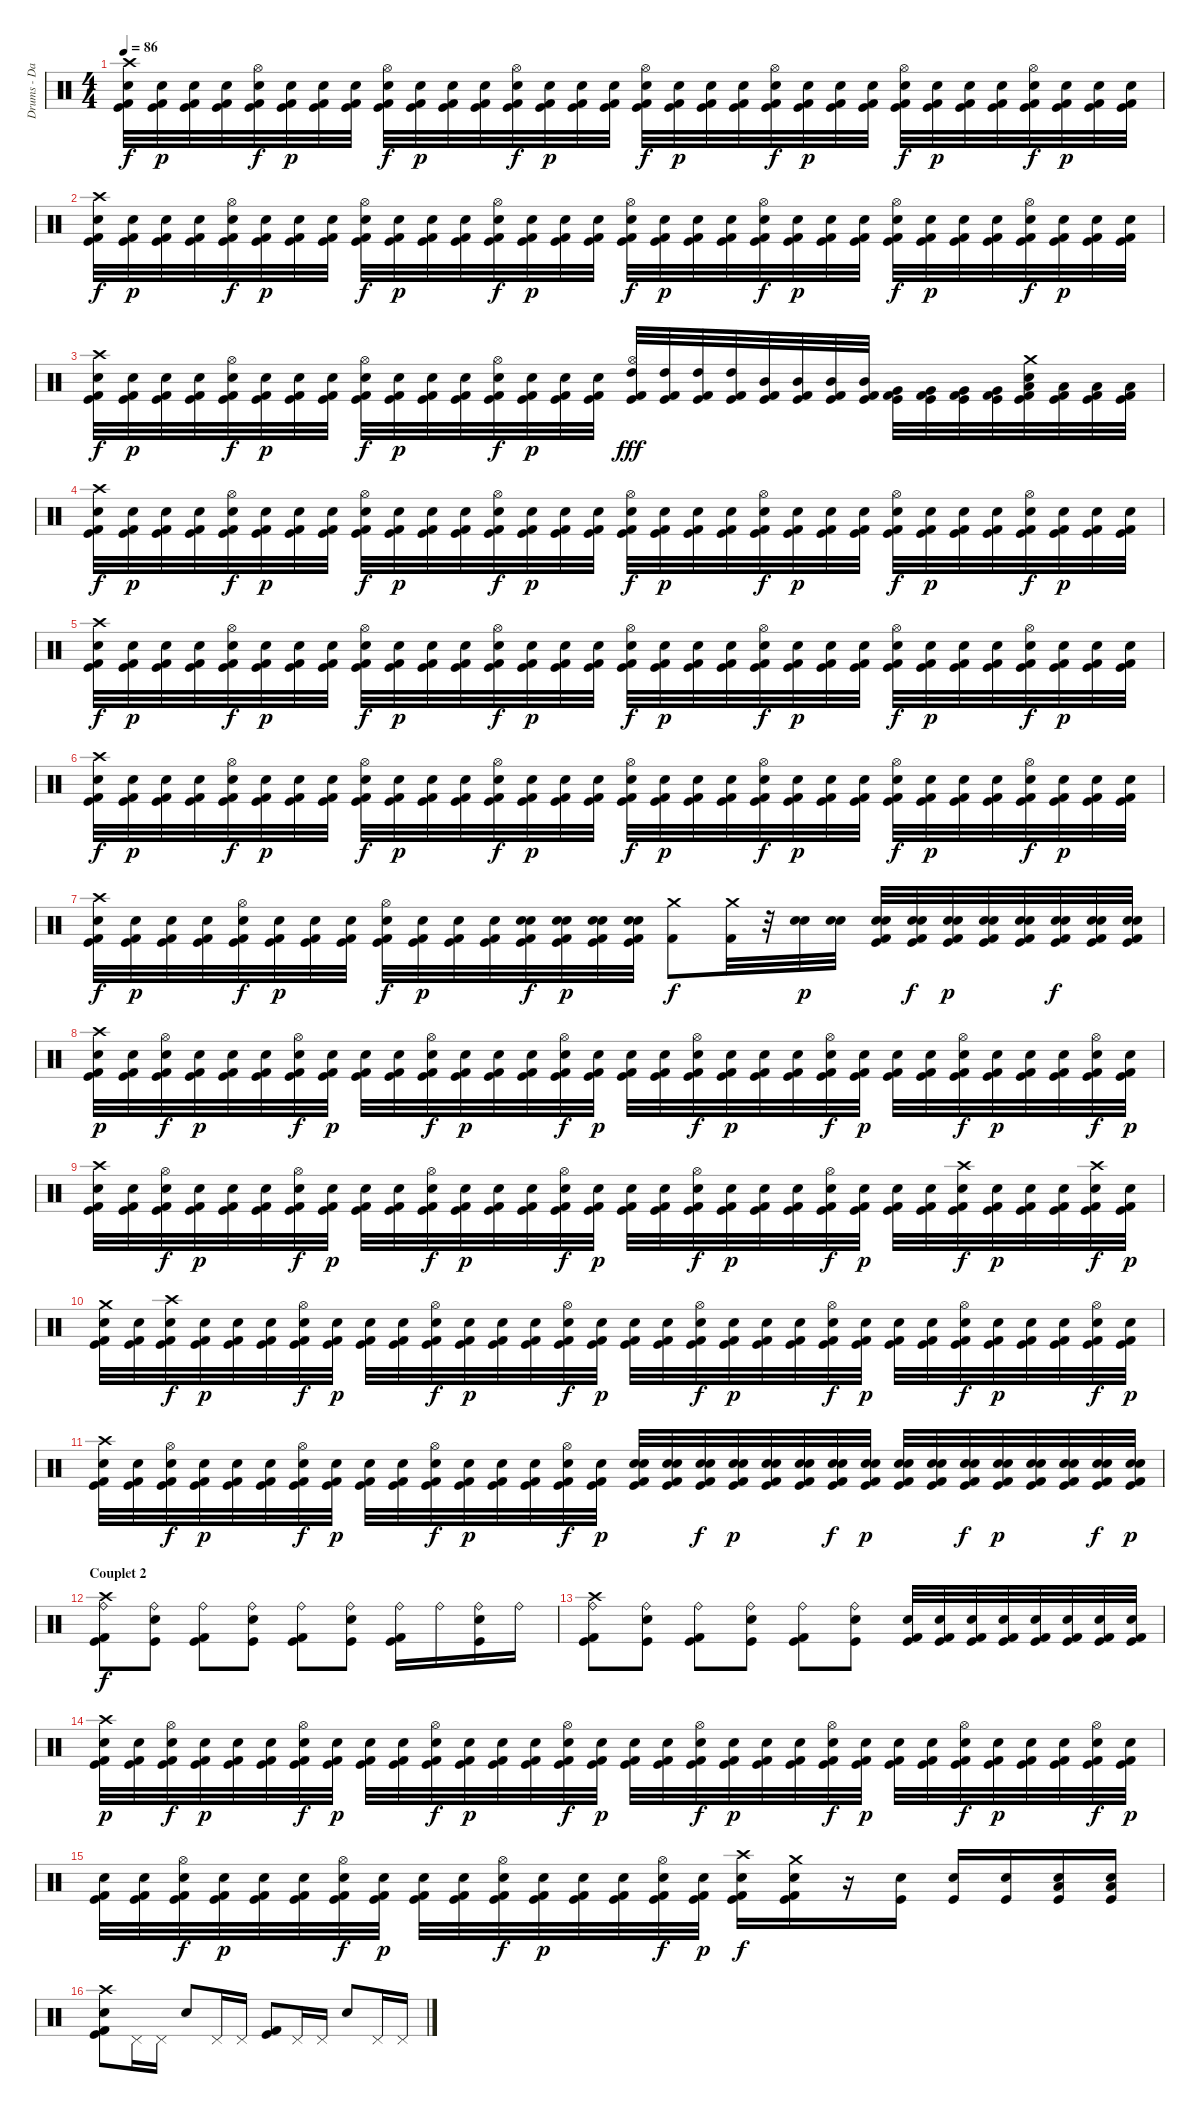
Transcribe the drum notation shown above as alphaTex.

\track ("Drums - Daniel Zimmermann" "Drums - Da") {instrument percussion}
\staff {score}
\articulation defaults
\ts (4 4)
\tempo 86
\clef neutral
\ks c
("Kick (hit)" "Kick (hit) 2" "Electric Snare (hit)" "Crash high (hit)").32{dy f} ("Kick (hit)" "Kick (hit) 2" "Electric Snare (hit)").32{dy p} ("Kick (hit)" "Kick (hit) 2" "Electric Snare (hit)").32 ("Kick (hit)" "Kick (hit) 2" "Electric Snare (hit)").32 ("Kick (hit)" "Kick (hit) 2" "Electric Snare (hit)" "Hi-Hat (open)").32{dy f} ("Kick (hit)" "Kick (hit) 2" "Electric Snare (hit)").32{dy p} ("Kick (hit)" "Kick (hit) 2" "Electric Snare (hit)").32 ("Kick (hit)" "Kick (hit) 2" "Electric Snare (hit)").32 ("Kick (hit)" "Kick (hit) 2" "Electric Snare (hit)" "Hi-Hat (open)").32{dy f} ("Kick (hit)" "Kick (hit) 2" "Electric Snare (hit)").32{dy p} ("Kick (hit)" "Kick (hit) 2" "Electric Snare (hit)").32 ("Kick (hit)" "Kick (hit) 2" "Electric Snare (hit)").32 ("Kick (hit)" "Kick (hit) 2" "Electric Snare (hit)" "Hi-Hat (open)").32{dy f} ("Kick (hit)" "Kick (hit) 2" "Electric Snare (hit)").32{dy p} ("Kick (hit)" "Kick (hit) 2" "Electric Snare (hit)").32 ("Kick (hit)" "Kick (hit) 2" "Electric Snare (hit)").32 ("Kick (hit)" "Kick (hit) 2" "Electric Snare (hit)" "Hi-Hat (open)").32{dy f} ("Kick (hit)" "Kick (hit) 2" "Electric Snare (hit)").32{dy p} ("Kick (hit)" "Kick (hit) 2" "Electric Snare (hit)").32 ("Kick (hit)" "Kick (hit) 2" "Electric Snare (hit)").32 ("Kick (hit)" "Kick (hit) 2" "Electric Snare (hit)" "Hi-Hat (open)").32{dy f} ("Kick (hit)" "Kick (hit) 2" "Electric Snare (hit)").32{dy p} ("Kick (hit)" "Kick (hit) 2" "Electric Snare (hit)").32 ("Kick (hit)" "Kick (hit) 2" "Electric Snare (hit)").32 ("Kick (hit)" "Kick (hit) 2" "Electric Snare (hit)" "Hi-Hat (open)").32{dy f} ("Kick (hit)" "Kick (hit) 2" "Electric Snare (hit)").32{dy p} ("Kick (hit)" "Kick (hit) 2" "Electric Snare (hit)").32 ("Kick (hit)" "Kick (hit) 2" "Electric Snare (hit)").32 ("Kick (hit)" "Kick (hit) 2" "Electric Snare (hit)" "Hi-Hat (open)").32{dy f} ("Kick (hit)" "Kick (hit) 2" "Electric Snare (hit)").32{dy p} ("Kick (hit)" "Kick (hit) 2" "Electric Snare (hit)").32 ("Kick (hit)" "Kick (hit) 2" "Electric Snare (hit)").32 |
("Kick (hit)" "Kick (hit) 2" "Electric Snare (hit)" "Crash high (hit)").32{dy f} ("Kick (hit)" "Kick (hit) 2" "Electric Snare (hit)").32{dy p} ("Kick (hit)" "Kick (hit) 2" "Electric Snare (hit)").32 ("Kick (hit)" "Kick (hit) 2" "Electric Snare (hit)").32 ("Kick (hit)" "Kick (hit) 2" "Electric Snare (hit)" "Hi-Hat (open)").32{dy f} ("Kick (hit)" "Kick (hit) 2" "Electric Snare (hit)").32{dy p} ("Kick (hit)" "Kick (hit) 2" "Electric Snare (hit)").32 ("Kick (hit)" "Kick (hit) 2" "Electric Snare (hit)").32 ("Kick (hit)" "Kick (hit) 2" "Electric Snare (hit)" "Hi-Hat (open)").32{dy f} ("Kick (hit)" "Kick (hit) 2" "Electric Snare (hit)").32{dy p} ("Kick (hit)" "Kick (hit) 2" "Electric Snare (hit)").32 ("Kick (hit)" "Kick (hit) 2" "Electric Snare (hit)").32 ("Kick (hit)" "Kick (hit) 2" "Electric Snare (hit)" "Hi-Hat (open)").32{dy f} ("Kick (hit)" "Kick (hit) 2" "Electric Snare (hit)").32{dy p} ("Kick (hit)" "Kick (hit) 2" "Electric Snare (hit)").32 ("Kick (hit)" "Kick (hit) 2" "Electric Snare (hit)").32 ("Kick (hit)" "Kick (hit) 2" "Electric Snare (hit)" "Hi-Hat (open)").32{dy f} ("Kick (hit)" "Kick (hit) 2" "Electric Snare (hit)").32{dy p} ("Kick (hit)" "Kick (hit) 2" "Electric Snare (hit)").32 ("Kick (hit)" "Kick (hit) 2" "Electric Snare (hit)").32 ("Kick (hit)" "Kick (hit) 2" "Electric Snare (hit)" "Hi-Hat (open)").32{dy f} ("Kick (hit)" "Kick (hit) 2" "Electric Snare (hit)").32{dy p} ("Kick (hit)" "Kick (hit) 2" "Electric Snare (hit)").32 ("Kick (hit)" "Kick (hit) 2" "Electric Snare (hit)").32 ("Kick (hit)" "Kick (hit) 2" "Electric Snare (hit)" "Hi-Hat (open)").32{dy f} ("Kick (hit)" "Kick (hit) 2" "Electric Snare (hit)").32{dy p} ("Kick (hit)" "Kick (hit) 2" "Electric Snare (hit)").32 ("Kick (hit)" "Kick (hit) 2" "Electric Snare (hit)").32 ("Kick (hit)" "Kick (hit) 2" "Electric Snare (hit)" "Hi-Hat (open)").32{dy f} ("Kick (hit)" "Kick (hit) 2" "Electric Snare (hit)").32{dy p} ("Kick (hit)" "Kick (hit) 2" "Electric Snare (hit)").32 ("Kick (hit)" "Kick (hit) 2" "Electric Snare (hit)").32 |
("Kick (hit)" "Kick (hit) 2" "Electric Snare (hit)" "Crash high (hit)").32{dy f} ("Kick (hit)" "Kick (hit) 2" "Electric Snare (hit)").32{dy p} ("Kick (hit)" "Kick (hit) 2" "Electric Snare (hit)").32 ("Kick (hit)" "Kick (hit) 2" "Electric Snare (hit)").32 ("Kick (hit)" "Kick (hit) 2" "Electric Snare (hit)" "Hi-Hat (open)").32{dy f} ("Kick (hit)" "Kick (hit) 2" "Electric Snare (hit)").32{dy p} ("Kick (hit)" "Kick (hit) 2" "Electric Snare (hit)").32 ("Kick (hit)" "Kick (hit) 2" "Electric Snare (hit)").32 ("Kick (hit)" "Kick (hit) 2" "Electric Snare (hit)" "Hi-Hat (open)").32{dy f} ("Kick (hit)" "Kick (hit) 2" "Electric Snare (hit)").32{dy p} ("Kick (hit)" "Kick (hit) 2" "Electric Snare (hit)").32 ("Kick (hit)" "Kick (hit) 2" "Electric Snare (hit)").32 ("Kick (hit)" "Kick (hit) 2" "Electric Snare (hit)" "Hi-Hat (open)").32{dy f} ("Kick (hit)" "Kick (hit) 2" "Electric Snare (hit)").32{dy p} ("Kick (hit)" "Kick (hit) 2" "Electric Snare (hit)").32 ("Kick (hit)" "Kick (hit) 2" "Electric Snare (hit)").32 ("Kick (hit)" "Kick (hit) 2" "High Tom (hit)" "Hi-Hat (open)").32{dy fff} ("Kick (hit)" "Kick (hit) 2" "High Tom (hit)").32 ("Kick (hit)" "Kick (hit) 2" "High Tom (hit)").32 ("Kick (hit)" "Kick (hit) 2" "High Tom (hit)").32 ("Kick (hit)" "Kick (hit) 2" "Mid Tom (hit)").32 ("Kick (hit)" "Kick (hit) 2" "Mid Tom (hit)").32 ("Kick (hit)" "Kick (hit) 2" "Mid Tom (hit)").32 ("Kick (hit)" "Kick (hit) 2" "Mid Tom (hit)").32 ("Kick (hit)" "Kick (hit) 2" "Very Low Tom (hit)").32 ("Kick (hit)" "Kick (hit) 2" "Very Low Tom (hit)").32 ("Kick (hit)" "Kick (hit) 2" "Very Low Tom (hit)").32 ("Kick (hit)" "Kick (hit) 2" "Very Low Tom (hit)").32 ("Kick (hit)" "Kick (hit) 2" "Low Floor Tom (hit)" "Electric Snare (hit)" "Crash medium (hit)").32 ("Kick (hit)" "Kick (hit) 2" "Low Floor Tom (hit)").32 ("Kick (hit)" "Kick (hit) 2" "Low Floor Tom (hit)").32 ("Kick (hit)" "Kick (hit) 2" "Low Floor Tom (hit)").32 |
("Kick (hit)" "Kick (hit) 2" "Electric Snare (hit)" "Crash high (hit)").32{dy f} ("Kick (hit)" "Kick (hit) 2" "Electric Snare (hit)").32{dy p} ("Kick (hit)" "Kick (hit) 2" "Electric Snare (hit)").32 ("Kick (hit)" "Kick (hit) 2" "Electric Snare (hit)").32 ("Kick (hit)" "Kick (hit) 2" "Electric Snare (hit)" "Hi-Hat (open)").32{dy f} ("Kick (hit)" "Kick (hit) 2" "Electric Snare (hit)").32{dy p} ("Kick (hit)" "Kick (hit) 2" "Electric Snare (hit)").32 ("Kick (hit)" "Kick (hit) 2" "Electric Snare (hit)").32 ("Kick (hit)" "Kick (hit) 2" "Electric Snare (hit)" "Hi-Hat (open)").32{dy f} ("Kick (hit)" "Kick (hit) 2" "Electric Snare (hit)").32{dy p} ("Kick (hit)" "Kick (hit) 2" "Electric Snare (hit)").32 ("Kick (hit)" "Kick (hit) 2" "Electric Snare (hit)").32 ("Kick (hit)" "Kick (hit) 2" "Electric Snare (hit)" "Hi-Hat (open)").32{dy f} ("Kick (hit)" "Kick (hit) 2" "Electric Snare (hit)").32{dy p} ("Kick (hit)" "Kick (hit) 2" "Electric Snare (hit)").32 ("Kick (hit)" "Kick (hit) 2" "Electric Snare (hit)").32 ("Kick (hit)" "Kick (hit) 2" "Electric Snare (hit)" "Hi-Hat (open)").32{dy f} ("Kick (hit)" "Kick (hit) 2" "Electric Snare (hit)").32{dy p} ("Kick (hit)" "Kick (hit) 2" "Electric Snare (hit)").32 ("Kick (hit)" "Kick (hit) 2" "Electric Snare (hit)").32 ("Kick (hit)" "Kick (hit) 2" "Electric Snare (hit)" "Hi-Hat (open)").32{dy f} ("Kick (hit)" "Kick (hit) 2" "Electric Snare (hit)").32{dy p} ("Kick (hit)" "Kick (hit) 2" "Electric Snare (hit)").32 ("Kick (hit)" "Kick (hit) 2" "Electric Snare (hit)").32 ("Kick (hit)" "Kick (hit) 2" "Electric Snare (hit)" "Hi-Hat (open)").32{dy f} ("Kick (hit)" "Kick (hit) 2" "Electric Snare (hit)").32{dy p} ("Kick (hit)" "Kick (hit) 2" "Electric Snare (hit)").32 ("Kick (hit)" "Kick (hit) 2" "Electric Snare (hit)").32 ("Kick (hit)" "Kick (hit) 2" "Electric Snare (hit)" "Hi-Hat (open)").32{dy f} ("Kick (hit)" "Kick (hit) 2" "Electric Snare (hit)").32{dy p} ("Kick (hit)" "Kick (hit) 2" "Electric Snare (hit)").32 ("Kick (hit)" "Kick (hit) 2" "Electric Snare (hit)").32 |
("Kick (hit)" "Kick (hit) 2" "Electric Snare (hit)" "Crash high (hit)").32{dy f} ("Kick (hit)" "Kick (hit) 2" "Electric Snare (hit)").32{dy p} ("Kick (hit)" "Kick (hit) 2" "Electric Snare (hit)").32 ("Kick (hit)" "Kick (hit) 2" "Electric Snare (hit)").32 ("Kick (hit)" "Kick (hit) 2" "Electric Snare (hit)" "Hi-Hat (open)").32{dy f} ("Kick (hit)" "Kick (hit) 2" "Electric Snare (hit)").32{dy p} ("Kick (hit)" "Kick (hit) 2" "Electric Snare (hit)").32 ("Kick (hit)" "Kick (hit) 2" "Electric Snare (hit)").32 ("Kick (hit)" "Kick (hit) 2" "Electric Snare (hit)" "Hi-Hat (open)").32{dy f} ("Kick (hit)" "Kick (hit) 2" "Electric Snare (hit)").32{dy p} ("Kick (hit)" "Kick (hit) 2" "Electric Snare (hit)").32 ("Kick (hit)" "Kick (hit) 2" "Electric Snare (hit)").32 ("Kick (hit)" "Kick (hit) 2" "Electric Snare (hit)" "Hi-Hat (open)").32{dy f} ("Kick (hit)" "Kick (hit) 2" "Electric Snare (hit)").32{dy p} ("Kick (hit)" "Kick (hit) 2" "Electric Snare (hit)").32 ("Kick (hit)" "Kick (hit) 2" "Electric Snare (hit)").32 ("Kick (hit)" "Kick (hit) 2" "Electric Snare (hit)" "Hi-Hat (open)").32{dy f} ("Kick (hit)" "Kick (hit) 2" "Electric Snare (hit)").32{dy p} ("Kick (hit)" "Kick (hit) 2" "Electric Snare (hit)").32 ("Kick (hit)" "Kick (hit) 2" "Electric Snare (hit)").32 ("Kick (hit)" "Kick (hit) 2" "Electric Snare (hit)" "Hi-Hat (open)").32{dy f} ("Kick (hit)" "Kick (hit) 2" "Electric Snare (hit)").32{dy p} ("Kick (hit)" "Kick (hit) 2" "Electric Snare (hit)").32 ("Kick (hit)" "Kick (hit) 2" "Electric Snare (hit)").32 ("Kick (hit)" "Kick (hit) 2" "Electric Snare (hit)" "Hi-Hat (open)").32{dy f} ("Kick (hit)" "Kick (hit) 2" "Electric Snare (hit)").32{dy p} ("Kick (hit)" "Kick (hit) 2" "Electric Snare (hit)").32 ("Kick (hit)" "Kick (hit) 2" "Electric Snare (hit)").32 ("Kick (hit)" "Kick (hit) 2" "Electric Snare (hit)" "Hi-Hat (open)").32{dy f} ("Kick (hit)" "Kick (hit) 2" "Electric Snare (hit)").32{dy p} ("Kick (hit)" "Kick (hit) 2" "Electric Snare (hit)").32 ("Kick (hit)" "Kick (hit) 2" "Electric Snare (hit)").32 |
("Kick (hit)" "Kick (hit) 2" "Electric Snare (hit)" "Crash high (hit)").32{dy f} ("Kick (hit)" "Kick (hit) 2" "Electric Snare (hit)").32{dy p} ("Kick (hit)" "Kick (hit) 2" "Electric Snare (hit)").32 ("Kick (hit)" "Kick (hit) 2" "Electric Snare (hit)").32 ("Kick (hit)" "Kick (hit) 2" "Electric Snare (hit)" "Hi-Hat (open)").32{dy f} ("Kick (hit)" "Kick (hit) 2" "Electric Snare (hit)").32{dy p} ("Kick (hit)" "Kick (hit) 2" "Electric Snare (hit)").32 ("Kick (hit)" "Kick (hit) 2" "Electric Snare (hit)").32 ("Kick (hit)" "Kick (hit) 2" "Electric Snare (hit)" "Hi-Hat (open)").32{dy f} ("Kick (hit)" "Kick (hit) 2" "Electric Snare (hit)").32{dy p} ("Kick (hit)" "Kick (hit) 2" "Electric Snare (hit)").32 ("Kick (hit)" "Kick (hit) 2" "Electric Snare (hit)").32 ("Kick (hit)" "Kick (hit) 2" "Electric Snare (hit)" "Hi-Hat (open)").32{dy f} ("Kick (hit)" "Kick (hit) 2" "Electric Snare (hit)").32{dy p} ("Kick (hit)" "Kick (hit) 2" "Electric Snare (hit)").32 ("Kick (hit)" "Kick (hit) 2" "Electric Snare (hit)").32 ("Kick (hit)" "Kick (hit) 2" "Electric Snare (hit)" "Hi-Hat (open)").32{dy f} ("Kick (hit)" "Kick (hit) 2" "Electric Snare (hit)").32{dy p} ("Kick (hit)" "Kick (hit) 2" "Electric Snare (hit)").32 ("Kick (hit)" "Kick (hit) 2" "Electric Snare (hit)").32 ("Kick (hit)" "Kick (hit) 2" "Electric Snare (hit)" "Hi-Hat (open)").32{dy f} ("Kick (hit)" "Kick (hit) 2" "Electric Snare (hit)").32{dy p} ("Kick (hit)" "Kick (hit) 2" "Electric Snare (hit)").32 ("Kick (hit)" "Kick (hit) 2" "Electric Snare (hit)").32 ("Kick (hit)" "Kick (hit) 2" "Electric Snare (hit)" "Hi-Hat (open)").32{dy f} ("Kick (hit)" "Kick (hit) 2" "Electric Snare (hit)").32{dy p} ("Kick (hit)" "Kick (hit) 2" "Electric Snare (hit)").32 ("Kick (hit)" "Kick (hit) 2" "Electric Snare (hit)").32 ("Kick (hit)" "Kick (hit) 2" "Electric Snare (hit)" "Hi-Hat (open)").32{dy f} ("Kick (hit)" "Kick (hit) 2" "Electric Snare (hit)").32{dy p} ("Kick (hit)" "Kick (hit) 2" "Electric Snare (hit)").32 ("Kick (hit)" "Kick (hit) 2" "Electric Snare (hit)").32 |
("Kick (hit)" "Kick (hit) 2" "Electric Snare (hit)" "Crash high (hit)").32{dy f} ("Kick (hit)" "Kick (hit) 2" "Electric Snare (hit)").32{dy p} ("Kick (hit)" "Kick (hit) 2" "Electric Snare (hit)").32 ("Kick (hit)" "Kick (hit) 2" "Electric Snare (hit)").32 ("Kick (hit)" "Kick (hit) 2" "Electric Snare (hit)" "Hi-Hat (open)").32{dy f} ("Kick (hit)" "Kick (hit) 2" "Electric Snare (hit)").32{dy p} ("Kick (hit)" "Kick (hit) 2" "Electric Snare (hit)").32 ("Kick (hit)" "Kick (hit) 2" "Electric Snare (hit)").32 ("Kick (hit)" "Kick (hit) 2" "Electric Snare (hit)" "Hi-Hat (open)").32{dy f} ("Kick (hit)" "Kick (hit) 2" "Electric Snare (hit)").32{dy p} ("Kick (hit)" "Kick (hit) 2" "Electric Snare (hit)").32 ("Kick (hit)" "Kick (hit) 2" "Electric Snare (hit)").32 ("Kick (hit)" "Kick (hit) 2" "Electric Snare (hit)" "Snare (hit) 2").32{dy f} ("Kick (hit)" "Kick (hit) 2" "Electric Snare (hit)" "Snare (hit) 2").32{dy p} ("Kick (hit)" "Kick (hit) 2" "Electric Snare (hit)" "Snare (hit) 2").32 ("Kick (hit)" "Kick (hit) 2" "Electric Snare (hit)" "Snare (hit) 2").32 ("Kick (hit) 2" "Crash medium (hit)").8{dy f} ("Kick (hit) 2" "Crash medium (hit)").32 r.32 ("Electric Snare (hit)" "Snare (hit) 2").32{dy p} ("Electric Snare (hit)" "Snare (hit) 2").32 ("Kick (hit)" "Kick (hit) 2" "Electric Snare (hit)" "Snare (hit) 2").32 ("Kick (hit)" "Kick (hit) 2" "Electric Snare (hit)" "Snare (hit) 2").32{dy f} ("Kick (hit)" "Kick (hit) 2" "Electric Snare (hit)" "Snare (hit) 2").32{dy p} ("Kick (hit)" "Kick (hit) 2" "Electric Snare (hit)" "Snare (hit) 2").32 ("Kick (hit)" "Kick (hit) 2" "Electric Snare (hit)" "Snare (hit) 2").32 ("Kick (hit)" "Kick (hit) 2" "Electric Snare (hit)" "Snare (hit) 2").32{dy f} ("Kick (hit)" "Kick (hit) 2" "Electric Snare (hit)" "Snare (hit) 2").32 ("Kick (hit)" "Kick (hit) 2" "Electric Snare (hit)" "Snare (hit) 2").32 |
("Kick (hit)" "Kick (hit) 2" "Electric Snare (hit)" "Crash high (hit)").32{dy p} ("Kick (hit)" "Kick (hit) 2" "Electric Snare (hit)").32 ("Kick (hit)" "Kick (hit) 2" "Electric Snare (hit)" "Hi-Hat (open)").32{dy f} ("Kick (hit)" "Kick (hit) 2" "Electric Snare (hit)").32{dy p} ("Kick (hit)" "Kick (hit) 2" "Electric Snare (hit)").32 ("Kick (hit)" "Kick (hit) 2" "Electric Snare (hit)").32 ("Kick (hit)" "Kick (hit) 2" "Electric Snare (hit)" "Hi-Hat (open)").32{dy f} ("Kick (hit)" "Kick (hit) 2" "Electric Snare (hit)").32{dy p} ("Kick (hit)" "Kick (hit) 2" "Electric Snare (hit)").32 ("Kick (hit)" "Kick (hit) 2" "Electric Snare (hit)").32 ("Kick (hit)" "Kick (hit) 2" "Electric Snare (hit)" "Hi-Hat (open)").32{dy f} ("Kick (hit)" "Kick (hit) 2" "Electric Snare (hit)").32{dy p} ("Kick (hit)" "Kick (hit) 2" "Electric Snare (hit)").32 ("Kick (hit)" "Kick (hit) 2" "Electric Snare (hit)").32 ("Kick (hit)" "Kick (hit) 2" "Electric Snare (hit)" "Hi-Hat (open)").32{dy f} ("Kick (hit)" "Kick (hit) 2" "Electric Snare (hit)").32{dy p} ("Kick (hit)" "Kick (hit) 2" "Electric Snare (hit)").32 ("Kick (hit)" "Kick (hit) 2" "Electric Snare (hit)").32 ("Kick (hit)" "Kick (hit) 2" "Electric Snare (hit)" "Hi-Hat (open)").32{dy f} ("Kick (hit)" "Kick (hit) 2" "Electric Snare (hit)").32{dy p} ("Kick (hit)" "Kick (hit) 2" "Electric Snare (hit)").32 ("Kick (hit)" "Kick (hit) 2" "Electric Snare (hit)").32 ("Kick (hit)" "Kick (hit) 2" "Electric Snare (hit)" "Hi-Hat (open)").32{dy f} ("Kick (hit)" "Kick (hit) 2" "Electric Snare (hit)").32{dy p} ("Kick (hit)" "Kick (hit) 2" "Electric Snare (hit)").32 ("Kick (hit)" "Kick (hit) 2" "Electric Snare (hit)").32 ("Kick (hit)" "Kick (hit) 2" "Electric Snare (hit)" "Hi-Hat (open)").32{dy f} ("Kick (hit)" "Kick (hit) 2" "Electric Snare (hit)").32{dy p} ("Kick (hit)" "Kick (hit) 2" "Electric Snare (hit)").32 ("Kick (hit)" "Kick (hit) 2" "Electric Snare (hit)").32 ("Kick (hit)" "Kick (hit) 2" "Electric Snare (hit)" "Hi-Hat (open)").32{dy f} ("Kick (hit)" "Kick (hit) 2" "Electric Snare (hit)").32{dy p} |
("Kick (hit)" "Kick (hit) 2" "Electric Snare (hit)" "Crash high (hit)").32 ("Kick (hit)" "Kick (hit) 2" "Electric Snare (hit)").32 ("Kick (hit)" "Kick (hit) 2" "Electric Snare (hit)" "Hi-Hat (open)").32{dy f} ("Kick (hit)" "Kick (hit) 2" "Electric Snare (hit)").32{dy p} ("Kick (hit)" "Kick (hit) 2" "Electric Snare (hit)").32 ("Kick (hit)" "Kick (hit) 2" "Electric Snare (hit)").32 ("Kick (hit)" "Kick (hit) 2" "Electric Snare (hit)" "Hi-Hat (open)").32{dy f} ("Kick (hit)" "Kick (hit) 2" "Electric Snare (hit)").32{dy p} ("Kick (hit)" "Kick (hit) 2" "Electric Snare (hit)").32 ("Kick (hit)" "Kick (hit) 2" "Electric Snare (hit)").32 ("Kick (hit)" "Kick (hit) 2" "Electric Snare (hit)" "Hi-Hat (open)").32{dy f} ("Kick (hit)" "Kick (hit) 2" "Electric Snare (hit)").32{dy p} ("Kick (hit)" "Kick (hit) 2" "Electric Snare (hit)").32 ("Kick (hit)" "Kick (hit) 2" "Electric Snare (hit)").32 ("Kick (hit)" "Kick (hit) 2" "Electric Snare (hit)" "Hi-Hat (open)").32{dy f} ("Kick (hit)" "Kick (hit) 2" "Electric Snare (hit)").32{dy p} ("Kick (hit)" "Kick (hit) 2" "Electric Snare (hit)").32 ("Kick (hit)" "Kick (hit) 2" "Electric Snare (hit)").32 ("Kick (hit)" "Kick (hit) 2" "Electric Snare (hit)" "Hi-Hat (open)").32{dy f} ("Kick (hit)" "Kick (hit) 2" "Electric Snare (hit)").32{dy p} ("Kick (hit)" "Kick (hit) 2" "Electric Snare (hit)").32 ("Kick (hit)" "Kick (hit) 2" "Electric Snare (hit)").32 ("Kick (hit)" "Kick (hit) 2" "Electric Snare (hit)" "Hi-Hat (open)").32{dy f} ("Kick (hit)" "Kick (hit) 2" "Electric Snare (hit)").32{dy p} ("Kick (hit)" "Kick (hit) 2" "Electric Snare (hit)").32 ("Kick (hit)" "Kick (hit) 2" "Electric Snare (hit)").32 ("Kick (hit)" "Kick (hit) 2" "Electric Snare (hit)" "Crash high (hit)").32{dy f} ("Kick (hit)" "Kick (hit) 2" "Electric Snare (hit)").32{dy p} ("Kick (hit)" "Kick (hit) 2" "Electric Snare (hit)").32 ("Kick (hit)" "Kick (hit) 2" "Electric Snare (hit)").32 ("Kick (hit)" "Kick (hit) 2" "Electric Snare (hit)" "Crash high (hit)").32{dy f} ("Kick (hit)" "Kick (hit) 2" "Electric Snare (hit)").32{dy p} |
("Kick (hit)" "Kick (hit) 2" "Electric Snare (hit)" "Crash medium (hit)").32 ("Kick (hit)" "Kick (hit) 2" "Electric Snare (hit)").32 ("Kick (hit)" "Kick (hit) 2" "Electric Snare (hit)" "Crash high (hit)").32{dy f} ("Kick (hit)" "Kick (hit) 2" "Electric Snare (hit)").32{dy p} ("Kick (hit)" "Kick (hit) 2" "Electric Snare (hit)").32 ("Kick (hit)" "Kick (hit) 2" "Electric Snare (hit)").32 ("Kick (hit)" "Kick (hit) 2" "Electric Snare (hit)" "Hi-Hat (open)").32{dy f} ("Kick (hit)" "Kick (hit) 2" "Electric Snare (hit)").32{dy p} ("Kick (hit)" "Kick (hit) 2" "Electric Snare (hit)").32 ("Kick (hit)" "Kick (hit) 2" "Electric Snare (hit)").32 ("Kick (hit)" "Kick (hit) 2" "Electric Snare (hit)" "Hi-Hat (open)").32{dy f} ("Kick (hit)" "Kick (hit) 2" "Electric Snare (hit)").32{dy p} ("Kick (hit)" "Kick (hit) 2" "Electric Snare (hit)").32 ("Kick (hit)" "Kick (hit) 2" "Electric Snare (hit)").32 ("Kick (hit)" "Kick (hit) 2" "Electric Snare (hit)" "Hi-Hat (open)").32{dy f} ("Kick (hit)" "Kick (hit) 2" "Electric Snare (hit)").32{dy p} ("Kick (hit)" "Kick (hit) 2" "Electric Snare (hit)").32 ("Kick (hit)" "Kick (hit) 2" "Electric Snare (hit)").32 ("Kick (hit)" "Kick (hit) 2" "Electric Snare (hit)" "Hi-Hat (open)").32{dy f} ("Kick (hit)" "Kick (hit) 2" "Electric Snare (hit)").32{dy p} ("Kick (hit)" "Kick (hit) 2" "Electric Snare (hit)").32 ("Kick (hit)" "Kick (hit) 2" "Electric Snare (hit)").32 ("Kick (hit)" "Kick (hit) 2" "Electric Snare (hit)" "Hi-Hat (open)").32{dy f} ("Kick (hit)" "Kick (hit) 2" "Electric Snare (hit)").32{dy p} ("Kick (hit)" "Kick (hit) 2" "Electric Snare (hit)").32 ("Kick (hit)" "Kick (hit) 2" "Electric Snare (hit)").32 ("Kick (hit)" "Kick (hit) 2" "Electric Snare (hit)" "Hi-Hat (open)").32{dy f} ("Kick (hit)" "Kick (hit) 2" "Electric Snare (hit)").32{dy p} ("Kick (hit)" "Kick (hit) 2" "Electric Snare (hit)").32 ("Kick (hit)" "Kick (hit) 2" "Electric Snare (hit)").32 ("Kick (hit)" "Kick (hit) 2" "Electric Snare (hit)" "Hi-Hat (open)").32{dy f} ("Kick (hit)" "Kick (hit) 2" "Electric Snare (hit)").32{dy p} |
("Kick (hit)" "Kick (hit) 2" "Electric Snare (hit)" "Crash high (hit)").32 ("Kick (hit)" "Kick (hit) 2" "Electric Snare (hit)").32 ("Kick (hit)" "Kick (hit) 2" "Electric Snare (hit)" "Hi-Hat (open)").32{dy f} ("Kick (hit)" "Kick (hit) 2" "Electric Snare (hit)").32{dy p} ("Kick (hit)" "Kick (hit) 2" "Electric Snare (hit)").32 ("Kick (hit)" "Kick (hit) 2" "Electric Snare (hit)").32 ("Kick (hit)" "Kick (hit) 2" "Electric Snare (hit)" "Hi-Hat (open)").32{dy f} ("Kick (hit)" "Kick (hit) 2" "Electric Snare (hit)").32{dy p} ("Kick (hit)" "Kick (hit) 2" "Electric Snare (hit)").32 ("Kick (hit)" "Kick (hit) 2" "Electric Snare (hit)").32 ("Kick (hit)" "Kick (hit) 2" "Electric Snare (hit)" "Hi-Hat (open)").32{dy f} ("Kick (hit)" "Kick (hit) 2" "Electric Snare (hit)").32{dy p} ("Kick (hit)" "Kick (hit) 2" "Electric Snare (hit)").32 ("Kick (hit)" "Kick (hit) 2" "Electric Snare (hit)").32 ("Kick (hit)" "Kick (hit) 2" "Electric Snare (hit)" "Hi-Hat (open)").32{dy f} ("Kick (hit)" "Kick (hit) 2" "Electric Snare (hit)").32{dy p} ("Kick (hit)" "Kick (hit) 2" "Electric Snare (hit)" "Snare (hit) 2").32 ("Kick (hit)" "Kick (hit) 2" "Electric Snare (hit)" "Snare (hit) 2").32 ("Kick (hit)" "Kick (hit) 2" "Electric Snare (hit)" "Snare (hit) 2").32{dy f} ("Kick (hit)" "Kick (hit) 2" "Electric Snare (hit)" "Snare (hit) 2").32{dy p} ("Kick (hit)" "Kick (hit) 2" "Electric Snare (hit)" "Snare (hit) 2").32 ("Kick (hit)" "Kick (hit) 2" "Electric Snare (hit)" "Snare (hit) 2").32 ("Kick (hit)" "Kick (hit) 2" "Electric Snare (hit)" "Snare (hit) 2").32{dy f} ("Kick (hit)" "Kick (hit) 2" "Electric Snare (hit)" "Snare (hit) 2").32{dy p} ("Kick (hit)" "Kick (hit) 2" "Electric Snare (hit)" "Snare (hit) 2").32 ("Kick (hit)" "Kick (hit) 2" "Electric Snare (hit)" "Snare (hit) 2").32 ("Kick (hit)" "Kick (hit) 2" "Electric Snare (hit)" "Snare (hit) 2").32{dy f} ("Kick (hit)" "Kick (hit) 2" "Electric Snare (hit)" "Snare (hit) 2").32{dy p} ("Kick (hit)" "Kick (hit) 2" "Electric Snare (hit)" "Snare (hit) 2").32 ("Kick (hit)" "Kick (hit) 2" "Electric Snare (hit)" "Snare (hit) 2").32 ("Kick (hit)" "Kick (hit) 2" "Electric Snare (hit)" "Snare (hit) 2").32{dy f} ("Kick (hit)" "Kick (hit) 2" "Electric Snare (hit)" "Snare (hit) 2").32{dy p} |
\section ("" "Couplet 2")
("Kick (hit)" "Kick (hit) 2" "Crash high (hit)" "Ride (bell)").8{dy f} ("Kick (hit)" "Electric Snare (hit)" "Ride (bell)").8 ("Kick (hit)" "Kick (hit) 2" "Ride (bell)").8 ("Kick (hit)" "Electric Snare (hit)" "Ride (bell)").8 ("Kick (hit)" "Kick (hit) 2" "Ride (bell)").8 ("Kick (hit)" "Electric Snare (hit)" "Ride (bell)").8 ("Kick (hit)" "Kick (hit) 2" "Ride (bell)").16 "Ride (bell)".16 ("Kick (hit)" "Electric Snare (hit)" "Ride (bell)").16 "Ride (bell)".16 |
("Kick (hit)" "Kick (hit) 2" "Crash high (hit)" "Ride (bell)").8 ("Kick (hit)" "Electric Snare (hit)" "Ride (bell)").8 ("Kick (hit)" "Kick (hit) 2" "Ride (bell)").8 ("Kick (hit)" "Electric Snare (hit)" "Ride (bell)").8 ("Kick (hit)" "Kick (hit) 2" "Ride (bell)").8 ("Kick (hit)" "Electric Snare (hit)" "Ride (bell)").8 ("Kick (hit)" "Kick (hit) 2" "Electric Snare (hit)").32 ("Kick (hit)" "Kick (hit) 2" "Electric Snare (hit)").32 ("Kick (hit)" "Kick (hit) 2" "Electric Snare (hit)").32 ("Kick (hit)" "Kick (hit) 2" "Electric Snare (hit)").32 ("Kick (hit)" "Kick (hit) 2" "Electric Snare (hit)").32 ("Kick (hit)" "Kick (hit) 2" "Electric Snare (hit)").32 ("Kick (hit)" "Kick (hit) 2" "Electric Snare (hit)").32 ("Kick (hit)" "Kick (hit) 2" "Electric Snare (hit)").32 |
("Kick (hit)" "Kick (hit) 2" "Electric Snare (hit)" "Crash high (hit)").32{dy p} ("Kick (hit)" "Kick (hit) 2" "Electric Snare (hit)").32 ("Kick (hit)" "Kick (hit) 2" "Electric Snare (hit)" "Hi-Hat (open)").32{dy f} ("Kick (hit)" "Kick (hit) 2" "Electric Snare (hit)").32{dy p} ("Kick (hit)" "Kick (hit) 2" "Electric Snare (hit)").32 ("Kick (hit)" "Kick (hit) 2" "Electric Snare (hit)").32 ("Kick (hit)" "Kick (hit) 2" "Electric Snare (hit)" "Hi-Hat (open)").32{dy f} ("Kick (hit)" "Kick (hit) 2" "Electric Snare (hit)").32{dy p} ("Kick (hit)" "Kick (hit) 2" "Electric Snare (hit)").32 ("Kick (hit)" "Kick (hit) 2" "Electric Snare (hit)").32 ("Kick (hit)" "Kick (hit) 2" "Electric Snare (hit)" "Hi-Hat (open)").32{dy f} ("Kick (hit)" "Kick (hit) 2" "Electric Snare (hit)").32{dy p} ("Kick (hit)" "Kick (hit) 2" "Electric Snare (hit)").32 ("Kick (hit)" "Kick (hit) 2" "Electric Snare (hit)").32 ("Kick (hit)" "Kick (hit) 2" "Electric Snare (hit)" "Hi-Hat (open)").32{dy f} ("Kick (hit)" "Kick (hit) 2" "Electric Snare (hit)").32{dy p} ("Kick (hit)" "Kick (hit) 2" "Electric Snare (hit)").32 ("Kick (hit)" "Kick (hit) 2" "Electric Snare (hit)").32 ("Kick (hit)" "Kick (hit) 2" "Electric Snare (hit)" "Hi-Hat (open)").32{dy f} ("Kick (hit)" "Kick (hit) 2" "Electric Snare (hit)").32{dy p} ("Kick (hit)" "Kick (hit) 2" "Electric Snare (hit)").32 ("Kick (hit)" "Kick (hit) 2" "Electric Snare (hit)").32 ("Kick (hit)" "Kick (hit) 2" "Electric Snare (hit)" "Hi-Hat (open)").32{dy f} ("Kick (hit)" "Kick (hit) 2" "Electric Snare (hit)").32{dy p} ("Kick (hit)" "Kick (hit) 2" "Electric Snare (hit)").32 ("Kick (hit)" "Kick (hit) 2" "Electric Snare (hit)").32 ("Kick (hit)" "Kick (hit) 2" "Electric Snare (hit)" "Hi-Hat (open)").32{dy f} ("Kick (hit)" "Kick (hit) 2" "Electric Snare (hit)").32{dy p} ("Kick (hit)" "Kick (hit) 2" "Electric Snare (hit)").32 ("Kick (hit)" "Kick (hit) 2" "Electric Snare (hit)").32 ("Kick (hit)" "Kick (hit) 2" "Electric Snare (hit)" "Hi-Hat (open)").32{dy f} ("Kick (hit)" "Kick (hit) 2" "Electric Snare (hit)").32{dy p} |
("Kick (hit)" "Kick (hit) 2" "Electric Snare (hit)").32 ("Kick (hit)" "Kick (hit) 2" "Electric Snare (hit)").32 ("Kick (hit)" "Kick (hit) 2" "Electric Snare (hit)" "Hi-Hat (open)").32{dy f} ("Kick (hit)" "Kick (hit) 2" "Electric Snare (hit)").32{dy p} ("Kick (hit)" "Kick (hit) 2" "Electric Snare (hit)").32 ("Kick (hit)" "Kick (hit) 2" "Electric Snare (hit)").32 ("Kick (hit)" "Kick (hit) 2" "Electric Snare (hit)" "Hi-Hat (open)").32{dy f} ("Kick (hit)" "Kick (hit) 2" "Electric Snare (hit)").32{dy p} ("Kick (hit)" "Kick (hit) 2" "Electric Snare (hit)").32 ("Kick (hit)" "Kick (hit) 2" "Electric Snare (hit)").32 ("Kick (hit)" "Kick (hit) 2" "Electric Snare (hit)" "Hi-Hat (open)").32{dy f} ("Kick (hit)" "Kick (hit) 2" "Electric Snare (hit)").32{dy p} ("Kick (hit)" "Kick (hit) 2" "Electric Snare (hit)").32 ("Kick (hit)" "Kick (hit) 2" "Electric Snare (hit)").32 ("Kick (hit)" "Kick (hit) 2" "Electric Snare (hit)" "Hi-Hat (open)").32{dy f} ("Kick (hit)" "Kick (hit) 2" "Electric Snare (hit)").32{dy p} ("Kick (hit)" "Kick (hit) 2" "Electric Snare (hit)" "Crash high (hit)").16{dy f} ("Kick (hit)" "Kick (hit) 2" "Electric Snare (hit)" "Crash medium (hit)").16 r.16 ("Kick (hit)" "Electric Snare (hit)").16 ("Kick (hit)" "Electric Snare (hit)").16 ("Kick (hit)" "Electric Snare (hit)").16 ("Kick (hit)" "Low Floor Tom (hit)" "Electric Snare (hit)").16 ("Kick (hit)" "Low Floor Tom (hit)" "Electric Snare (hit)").16 |
("Kick (hit)" "Kick (hit) 2" "Electric Snare (hit)" "Crash high (hit)").8 "Pedal Hi-Hat (hit)".16 "Pedal Hi-Hat (hit)".16 "Electric Snare (hit)".8 "Pedal Hi-Hat (hit)".16 "Pedal Hi-Hat (hit)".16 ("Kick (hit)" "Kick (hit) 2").8 "Pedal Hi-Hat (hit)".16 "Pedal Hi-Hat (hit)".16 "Electric Snare (hit)".8 "Pedal Hi-Hat (hit)".16 "Pedal Hi-Hat (hit)".16
